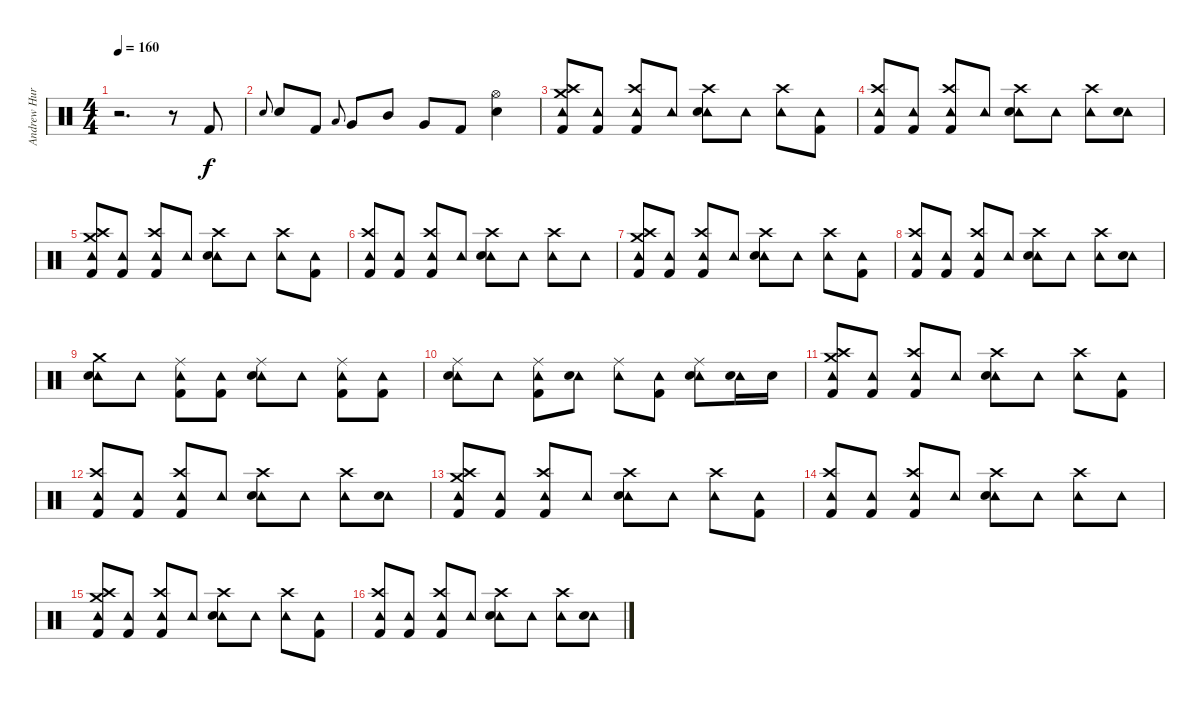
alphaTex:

\track ("Andrew Hurley (Drums)" "Andrew Hur") {instrument percussion}
\staff {score}
\articulation defaults
\ts (4 4)
\tempo 160
\clef neutral
\ks c
r.2{d dy f} r.8 "Kick (hit) 2".8 |
"Snare (hit) 2".8{gr onbeat} "Snare (hit) 2".8 "Kick (hit) 2".8 "Low Tom (hit)".8{gr onbeat} "Very Low Tom (hit)".8 "Mid Tom (hit)".8 "Very Low Tom (hit)".8 "Kick (hit) 2".8 ("Hi-Hat (open)" "Snare (hit) 2").4 |
("Crash high (hit)" "Crash medium (hit)" "Tambourine (hit)" "Kick (hit) 2").8 ("Tambourine (hit)" "Kick (hit) 2").8 ("Crash high (hit)" "Tambourine (hit)" "Kick (hit) 2").8 "Tambourine (hit)".8 ("Crash high (hit)" "Tambourine (hit)" "Snare (hit) 2").8 "Tambourine (hit)".8 ("Crash high (hit)" "Tambourine (hit)").8 ("Tambourine (hit)" "Kick (hit) 2").8 |
("Crash high (hit)" "Tambourine (hit)" "Kick (hit) 2").8 ("Tambourine (hit)" "Kick (hit) 2").8 ("Crash high (hit)" "Tambourine (hit)" "Kick (hit) 2").8 "Tambourine (hit)".8 ("Crash high (hit)" "Tambourine (hit)" "Snare (hit) 2").8 "Tambourine (hit)".8 ("Crash high (hit)" "Tambourine (hit)").8 ("Tambourine (hit)" "Snare (hit) 2").8 |
("Crash high (hit)" "Crash medium (hit)" "Tambourine (hit)" "Kick (hit) 2").8 ("Tambourine (hit)" "Kick (hit) 2").8 ("Crash high (hit)" "Tambourine (hit)" "Kick (hit) 2").8 "Tambourine (hit)".8 ("Crash high (hit)" "Tambourine (hit)" "Snare (hit) 2").8 "Tambourine (hit)".8 ("Crash high (hit)" "Tambourine (hit)").8 ("Tambourine (hit)" "Kick (hit) 2").8 |
("Crash high (hit)" "Tambourine (hit)" "Kick (hit) 2").8 ("Tambourine (hit)" "Kick (hit) 2").8 ("Crash high (hit)" "Tambourine (hit)" "Kick (hit) 2").8 "Tambourine (hit)".8 ("Crash high (hit)" "Tambourine (hit)" "Snare (hit) 2").8 "Tambourine (hit)".8 ("Crash high (hit)" "Tambourine (hit)").8 "Tambourine (hit)".8 |
("Crash high (hit)" "Crash medium (hit)" "Tambourine (hit)" "Kick (hit) 2").8 ("Tambourine (hit)" "Kick (hit) 2").8 ("Crash high (hit)" "Tambourine (hit)" "Kick (hit) 2").8 "Tambourine (hit)".8 ("Crash high (hit)" "Tambourine (hit)" "Snare (hit) 2").8 "Tambourine (hit)".8 ("Crash high (hit)" "Tambourine (hit)").8 ("Tambourine (hit)" "Kick (hit) 2").8 |
("Crash high (hit)" "Tambourine (hit)" "Kick (hit) 2").8 ("Tambourine (hit)" "Kick (hit) 2").8 ("Crash high (hit)" "Tambourine (hit)" "Kick (hit) 2").8 "Tambourine (hit)".8 ("Crash high (hit)" "Tambourine (hit)" "Snare (hit) 2").8 "Tambourine (hit)".8 ("Crash high (hit)" "Tambourine (hit)").8 ("Tambourine (hit)" "Snare (hit) 2").8 |
("Crash medium (hit)" "Tambourine (hit)" "Snare (hit) 2").8 "Tambourine (hit)".8 ("Ride (middle)" "Tambourine (hit)" "Kick (hit) 2").8 ("Tambourine (hit)" "Kick (hit) 2").8 ("Ride (middle)" "Tambourine (hit)" "Snare (hit) 2").8 "Tambourine (hit)".8 ("Ride (middle)" "Tambourine (hit)" "Kick (hit) 2").8 ("Tambourine (hit)" "Kick (hit) 2").8 |
("Ride (middle)" "Tambourine (hit)" "Snare (hit) 2").8 "Tambourine (hit)".8 ("Ride (middle)" "Tambourine (hit)" "Kick (hit) 2").8 ("Tambourine (hit)" "Snare (hit) 2").8 ("Ride (middle)" "Tambourine (hit)").8 ("Tambourine (hit)" "Kick (hit) 2").8 ("Ride (middle)" "Tambourine (hit)" "Snare (hit) 2").8 ("Tambourine (hit)" "Snare (hit) 2").16 "Snare (hit) 2".16 |
("Crash high (hit)" "Crash medium (hit)" "Tambourine (hit)" "Kick (hit) 2").8 ("Tambourine (hit)" "Kick (hit) 2").8 ("Crash high (hit)" "Tambourine (hit)" "Kick (hit) 2").8 "Tambourine (hit)".8 ("Crash high (hit)" "Tambourine (hit)" "Snare (hit) 2").8 "Tambourine (hit)".8 ("Crash high (hit)" "Tambourine (hit)").8 ("Tambourine (hit)" "Kick (hit) 2").8 |
("Crash high (hit)" "Tambourine (hit)" "Kick (hit) 2").8 ("Tambourine (hit)" "Kick (hit) 2").8 ("Crash high (hit)" "Tambourine (hit)" "Kick (hit) 2").8 "Tambourine (hit)".8 ("Crash high (hit)" "Tambourine (hit)" "Snare (hit) 2").8 "Tambourine (hit)".8 ("Crash high (hit)" "Tambourine (hit)").8 ("Tambourine (hit)" "Snare (hit) 2").8 |
("Crash high (hit)" "Crash medium (hit)" "Tambourine (hit)" "Kick (hit) 2").8 ("Tambourine (hit)" "Kick (hit) 2").8 ("Crash high (hit)" "Tambourine (hit)" "Kick (hit) 2").8 "Tambourine (hit)".8 ("Crash high (hit)" "Tambourine (hit)" "Snare (hit) 2").8 "Tambourine (hit)".8 ("Crash high (hit)" "Tambourine (hit)").8 ("Tambourine (hit)" "Kick (hit) 2").8 |
("Crash high (hit)" "Tambourine (hit)" "Kick (hit) 2").8 ("Tambourine (hit)" "Kick (hit) 2").8 ("Crash high (hit)" "Tambourine (hit)" "Kick (hit) 2").8 "Tambourine (hit)".8 ("Crash high (hit)" "Tambourine (hit)" "Snare (hit) 2").8 "Tambourine (hit)".8 ("Crash high (hit)" "Tambourine (hit)").8 "Tambourine (hit)".8 |
("Crash high (hit)" "Crash medium (hit)" "Tambourine (hit)" "Kick (hit) 2").8 ("Tambourine (hit)" "Kick (hit) 2").8 ("Crash high (hit)" "Tambourine (hit)" "Kick (hit) 2").8 "Tambourine (hit)".8 ("Crash high (hit)" "Tambourine (hit)" "Snare (hit) 2").8 "Tambourine (hit)".8 ("Crash high (hit)" "Tambourine (hit)").8 ("Tambourine (hit)" "Kick (hit) 2").8 |
("Crash high (hit)" "Tambourine (hit)" "Kick (hit) 2").8 ("Tambourine (hit)" "Kick (hit) 2").8 ("Crash high (hit)" "Tambourine (hit)" "Kick (hit) 2").8 "Tambourine (hit)".8 ("Crash high (hit)" "Tambourine (hit)" "Snare (hit) 2").8 "Tambourine (hit)".8 ("Crash high (hit)" "Tambourine (hit)").8 ("Tambourine (hit)" "Snare (hit) 2").8
